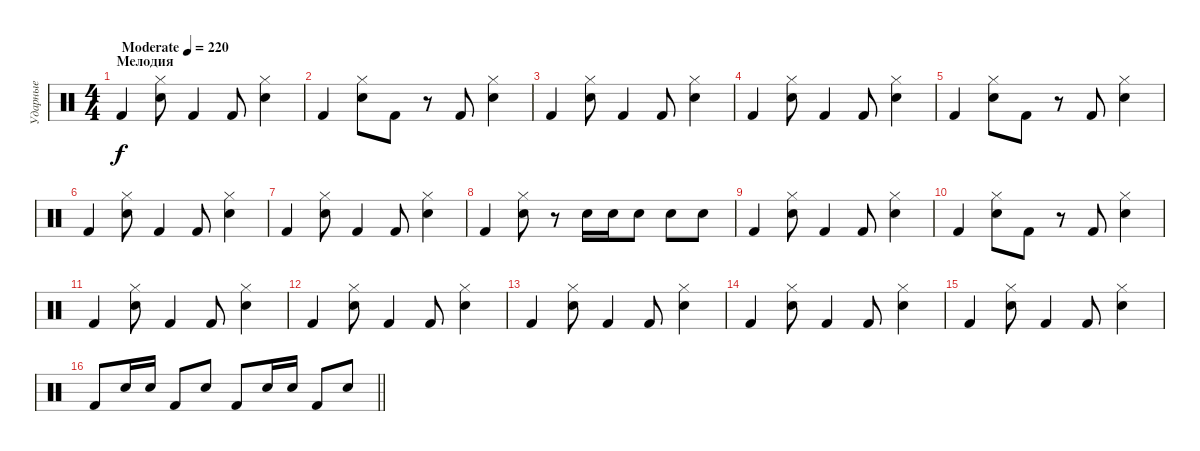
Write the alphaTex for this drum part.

\track ("Ударные" "Ударные") {instrument percussion}
\staff {score}
\articulation defaults
\ts (4 4)
\section ("" "Мелодия")
\tempo (220 "Moderate")
\clef neutral
\ks c "Kick (hit) 2".4{dy f}
("Hi-Hat (closed)" "Snare (hit) 2").8 "Kick (hit) 2".4 "Kick (hit) 2".8 ("Hi-Hat (closed)" "Snare (hit) 2").4 |
"Kick (hit) 2".4 ("Hi-Hat (closed)" "Snare (hit) 2").8 "Kick (hit) 2".8 r.8 "Kick (hit) 2".8 ("Hi-Hat (closed)" "Snare (hit) 2").4 |
"Kick (hit) 2".4 ("Hi-Hat (closed)" "Snare (hit) 2").8 "Kick (hit) 2".4 "Kick (hit) 2".8 ("Hi-Hat (closed)" "Snare (hit) 2").4 |
"Kick (hit) 2".4 ("Hi-Hat (closed)" "Snare (hit) 2").8 "Kick (hit) 2".4 "Kick (hit) 2".8 ("Hi-Hat (closed)" "Snare (hit) 2").4 |
"Kick (hit) 2".4 ("Hi-Hat (closed)" "Snare (hit) 2").8 "Kick (hit) 2".8 r.8 "Kick (hit) 2".8 ("Hi-Hat (closed)" "Snare (hit) 2").4 |
"Kick (hit) 2".4 ("Hi-Hat (closed)" "Snare (hit) 2").8 "Kick (hit) 2".4 "Kick (hit) 2".8 ("Hi-Hat (closed)" "Snare (hit) 2").4 |
"Kick (hit) 2".4 ("Hi-Hat (closed)" "Snare (hit) 2").8 "Kick (hit) 2".4 "Kick (hit) 2".8 ("Hi-Hat (closed)" "Snare (hit) 2").4 |
"Kick (hit) 2".4 ("Hi-Hat (closed)" "Snare (hit) 2").8 r.8 "Snare (hit) 2".16 "Snare (hit) 2".16 "Snare (hit) 2".8 "Snare (hit) 2".8 "Snare (hit) 2".8 |
"Kick (hit) 2".4 ("Hi-Hat (closed)" "Snare (hit) 2").8 "Kick (hit) 2".4 "Kick (hit) 2".8 ("Hi-Hat (closed)" "Snare (hit) 2").4 |
"Kick (hit) 2".4 ("Hi-Hat (closed)" "Snare (hit) 2").8 "Kick (hit) 2".8 r.8 "Kick (hit) 2".8 ("Hi-Hat (closed)" "Snare (hit) 2").4 |
"Kick (hit) 2".4 ("Hi-Hat (closed)" "Snare (hit) 2").8 "Kick (hit) 2".4 "Kick (hit) 2".8 ("Hi-Hat (closed)" "Snare (hit) 2").4 |
"Kick (hit) 2".4 ("Hi-Hat (closed)" "Snare (hit) 2").8 "Kick (hit) 2".4 "Kick (hit) 2".8 ("Hi-Hat (closed)" "Snare (hit) 2").4 |
"Kick (hit) 2".4 ("Hi-Hat (closed)" "Snare (hit) 2").8 "Kick (hit) 2".4 "Kick (hit) 2".8 ("Hi-Hat (closed)" "Snare (hit) 2").4 |
"Kick (hit) 2".4 ("Hi-Hat (closed)" "Snare (hit) 2").8 "Kick (hit) 2".4 "Kick (hit) 2".8 ("Hi-Hat (closed)" "Snare (hit) 2").4 |
"Kick (hit) 2".4 ("Hi-Hat (closed)" "Snare (hit) 2").8 "Kick (hit) 2".4 "Kick (hit) 2".8 ("Hi-Hat (closed)" "Snare (hit) 2").4 |
\barLineRight lightlight "Kick (hit) 2".8 "Snare (hit) 2".16 "Snare (hit) 2".16 "Kick (hit) 2".8 "Snare (hit) 2".8 "Kick (hit) 2".8 "Snare (hit) 2".16 "Snare (hit) 2".16 "Kick (hit) 2".8 "Snare (hit) 2".8
